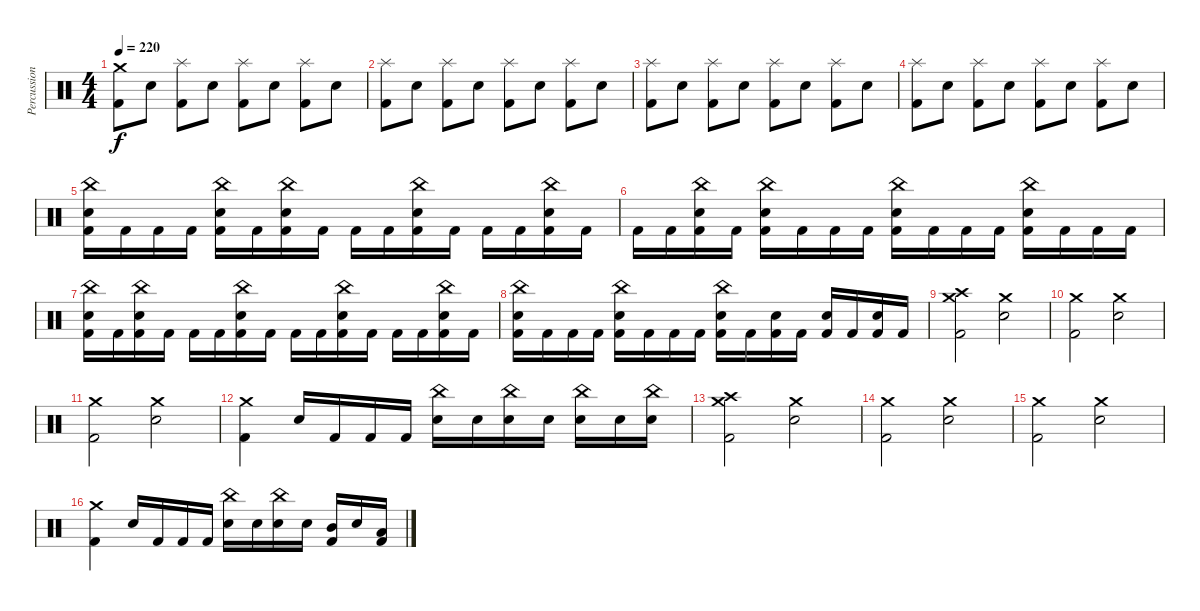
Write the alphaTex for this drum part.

\track ("Percussion" "Percussion") {instrument percussion}
\staff {score}
\articulation defaults
\ts (4 4)
\tempo 220
\clef neutral
\ks c
("Crash medium (hit)" "Kick (hit) 2").8{dy f} "Snare (hit) 2".8 ("Splash (hit)" "Kick (hit) 2").8 "Snare (hit) 2".8 ("Splash (hit)" "Kick (hit) 2").8 "Snare (hit) 2".8 ("Splash (hit)" "Kick (hit) 2").8 "Snare (hit) 2".8 |
("Splash (hit)" "Kick (hit) 2").8 "Snare (hit) 2".8 ("Splash (hit)" "Kick (hit) 2").8 "Snare (hit) 2".8 ("Splash (hit)" "Kick (hit) 2").8 "Snare (hit) 2".8 ("Splash (hit)" "Kick (hit) 2").8 "Snare (hit) 2".8 |
("Splash (hit)" "Kick (hit) 2").8 "Snare (hit) 2".8 ("Splash (hit)" "Kick (hit) 2").8 "Snare (hit) 2".8 ("Splash (hit)" "Kick (hit) 2").8 "Snare (hit) 2".8 ("Splash (hit)" "Kick (hit) 2").8 "Snare (hit) 2".8 |
("Splash (hit)" "Kick (hit) 2").8 "Snare (hit) 2".8 ("Splash (hit)" "Kick (hit) 2").8 "Snare (hit) 2".8 ("Splash (hit)" "Kick (hit) 2").8 "Snare (hit) 2".8 ("Splash (hit)" "Kick (hit) 2").8 "Snare (hit) 2".8 |
("Snare (hit) 2" "China (hit)" "Kick (hit) 2").16 "Kick (hit) 2".16 "Kick (hit) 2".16 "Kick (hit) 2".16 ("Snare (hit) 2" "China (hit)" "Kick (hit) 2").16 "Kick (hit) 2".16 ("Snare (hit) 2" "China (hit)" "Kick (hit) 2").16 "Kick (hit) 2".16 "Kick (hit) 2".16 "Kick (hit) 2".16 ("Snare (hit) 2" "China (hit)" "Kick (hit) 2").16 "Kick (hit) 2".16 "Kick (hit) 2".16 "Kick (hit) 2".16 ("Snare (hit) 2" "China (hit)" "Kick (hit) 2").16 "Kick (hit) 2".16 |
"Kick (hit) 2".16 "Kick (hit) 2".16 ("China (hit)" "Snare (hit) 2" "Kick (hit) 2").16 "Kick (hit) 2".16 ("China (hit)" "Snare (hit) 2" "Kick (hit) 2").16 "Kick (hit) 2".16 "Kick (hit) 2".16 "Kick (hit) 2".16 ("Snare (hit) 2" "China (hit)" "Kick (hit) 2").16 "Kick (hit) 2".16 "Kick (hit) 2".16 "Kick (hit) 2".16 ("Snare (hit) 2" "China (hit)" "Kick (hit) 2").16 "Kick (hit) 2".16 "Kick (hit) 2".16 "Kick (hit) 2".16 |
("Snare (hit) 2" "China (hit)" "Kick (hit) 2").16 "Kick (hit) 2".16 ("Snare (hit) 2" "China (hit)" "Kick (hit) 2").16 "Kick (hit) 2".16 "Kick (hit) 2".16 "Kick (hit) 2".16 ("Snare (hit) 2" "China (hit)" "Kick (hit) 2").16 "Kick (hit) 2".16 "Kick (hit) 2".16 "Kick (hit) 2".16 ("Snare (hit) 2" "China (hit)" "Kick (hit) 2").16 "Kick (hit) 2".16 "Kick (hit) 2".16 "Kick (hit) 2".16 ("Snare (hit) 2" "China (hit)" "Kick (hit) 2").16 "Kick (hit) 2".16 |
("Snare (hit) 2" "China (hit)" "Kick (hit) 2").16 "Kick (hit) 2".16 "Kick (hit) 2".16 "Kick (hit) 2".16 ("Snare (hit) 2" "China (hit)" "Kick (hit) 2").16 "Kick (hit) 2".16 "Kick (hit) 2".16 "Kick (hit) 2".16 ("Snare (hit) 2" "China (hit)" "Kick (hit) 2").16 "Kick (hit) 2".16 ("Snare (hit) 2" "Kick (hit) 2").16 "Kick (hit) 2".16 ("Snare (hit) 2" "Kick (hit) 2").16 "Kick (hit) 2".16 ("Snare (hit) 2" "Kick (hit) 2").16 "Kick (hit) 2".16 |
("Crash high (hit)" "Crash medium (hit)" "Kick (hit) 2").2 ("Crash medium (hit)" "Snare (hit) 2").2 |
("Crash medium (hit)" "Kick (hit) 2").2 ("Crash medium (hit)" "Snare (hit) 2").2 |
("Crash medium (hit)" "Kick (hit) 2").2 ("Crash medium (hit)" "Snare (hit) 2").2 |
("Crash medium (hit)" "Kick (hit) 2").4 "Snare (hit)".16 "Kick (hit) 2".16 "Kick (hit) 2".16 "Kick (hit) 2".16 ("China (hit)" "Snare (hit) 2").16 "Snare (hit)".16 ("China (hit)" "Snare (hit) 2").16 "Snare (hit)".16 ("China (hit)" "Snare (hit) 2").16 "Snare (hit)".16 ("China (hit)" "Snare (hit) 2").16 |
("Crash high (hit)" "Crash medium (hit)" "Kick (hit) 2").2 ("Crash medium (hit)" "Snare (hit) 2").2 |
("Crash medium (hit)" "Kick (hit) 2").2 ("Crash medium (hit)" "Snare (hit) 2").2 |
("Crash medium (hit)" "Kick (hit) 2").2 ("Crash medium (hit)" "Snare (hit) 2").2 |
("Crash medium (hit)" "Kick (hit) 2").4 "Snare (hit)".16 "Kick (hit) 2".16 "Kick (hit) 2".16 "Kick (hit) 2".16 ("China (hit)" "Snare (hit) 2").16 "Snare (hit)".16 ("China (hit)" "Snare (hit) 2").16 "Snare (hit)".16 ("Mid Tom (hit)" "Kick (hit) 2").16 "Snare (hit)".16 ("Low Tom (hit)" "Kick (hit) 2").16
